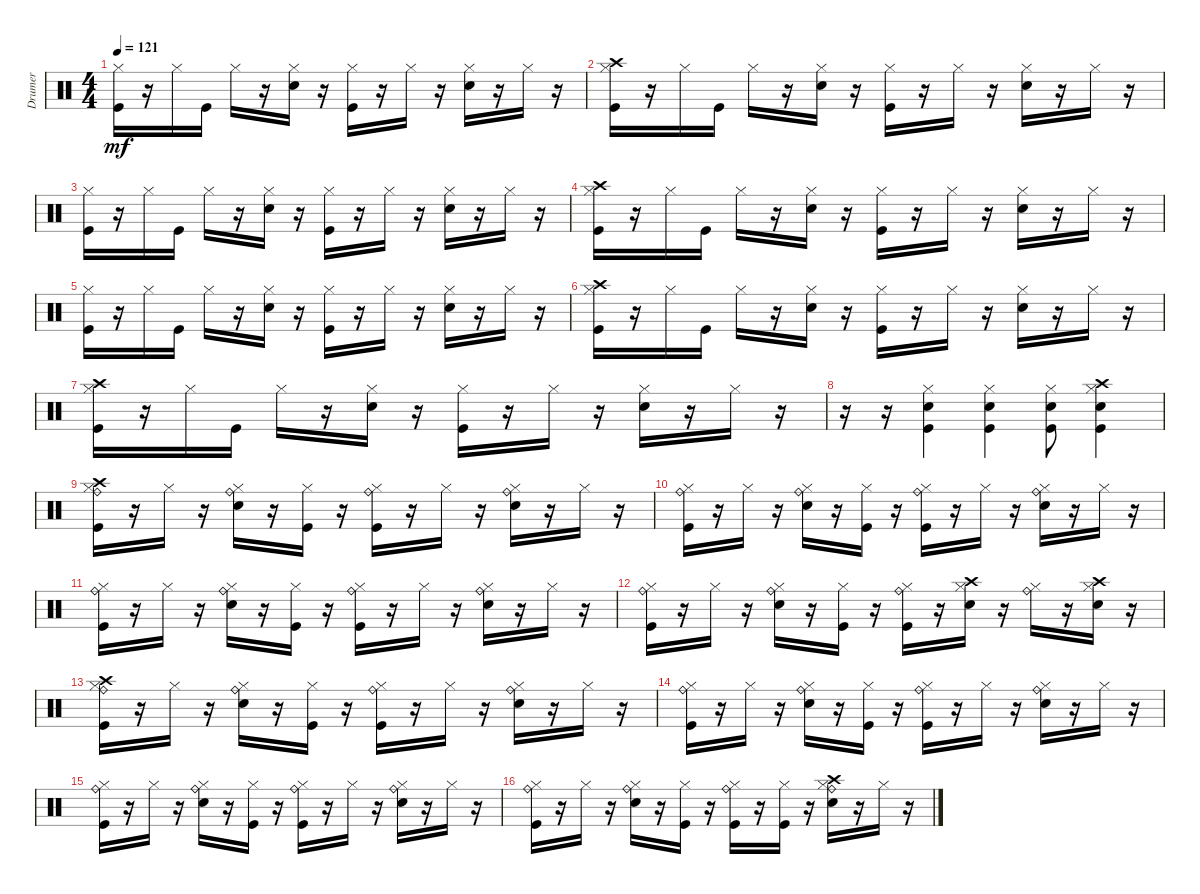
\track ("Drumer" "Drumer") {instrument percussion}
\staff {score}
\articulation defaults
\ts (4 4)
\tempo 121
\clef neutral
\ks c
("Hi-Hat (closed)" "Kick (hit)").16{dy mf} r.16 "Hi-Hat (closed)".16 "Kick (hit)".16 "Hi-Hat (closed)".16 r.16 ("Hi-Hat (closed)" "Snare (hit) 2").16 r.16 ("Hi-Hat (closed)" "Kick (hit)").16 r.16 "Hi-Hat (closed)".16 r.16 ("Hi-Hat (closed)" "Snare (hit) 2").16 r.16 "Hi-Hat (closed)".16 r.16 |
("Hi-Hat (closed)" "Kick (hit)" "Crash high (hit)").16 r.16 "Hi-Hat (closed)".16 "Kick (hit)".16 "Hi-Hat (closed)".16 r.16 ("Hi-Hat (closed)" "Snare (hit) 2").16 r.16 ("Hi-Hat (closed)" "Kick (hit)").16 r.16 "Hi-Hat (closed)".16 r.16 ("Hi-Hat (closed)" "Snare (hit) 2").16 r.16 "Hi-Hat (closed)".16 r.16 |
("Hi-Hat (closed)" "Kick (hit)").16 r.16 "Hi-Hat (closed)".16 "Kick (hit)".16 "Hi-Hat (closed)".16 r.16 ("Hi-Hat (closed)" "Snare (hit) 2").16 r.16 ("Hi-Hat (closed)" "Kick (hit)").16 r.16 "Hi-Hat (closed)".16 r.16 ("Hi-Hat (closed)" "Snare (hit) 2").16 r.16 "Hi-Hat (closed)".16 r.16 |
("Hi-Hat (closed)" "Kick (hit)" "Crash high (hit)").16 r.16 "Hi-Hat (closed)".16 "Kick (hit)".16 "Hi-Hat (closed)".16 r.16 ("Hi-Hat (closed)" "Snare (hit) 2").16 r.16 ("Hi-Hat (closed)" "Kick (hit)").16 r.16 "Hi-Hat (closed)".16 r.16 ("Hi-Hat (closed)" "Snare (hit) 2").16 r.16 "Hi-Hat (closed)".16 r.16 |
("Hi-Hat (closed)" "Kick (hit)").16 r.16 "Hi-Hat (closed)".16 "Kick (hit)".16 "Hi-Hat (closed)".16 r.16 ("Hi-Hat (closed)" "Snare (hit) 2").16 r.16 ("Hi-Hat (closed)" "Kick (hit)").16 r.16 "Hi-Hat (closed)".16 r.16 ("Hi-Hat (closed)" "Snare (hit) 2").16 r.16 "Hi-Hat (closed)".16 r.16 |
("Hi-Hat (closed)" "Kick (hit)" "Crash high (hit)").16 r.16 "Hi-Hat (closed)".16 "Kick (hit)".16 "Hi-Hat (closed)".16 r.16 ("Hi-Hat (closed)" "Snare (hit) 2").16 r.16 ("Hi-Hat (closed)" "Kick (hit)").16 r.16 "Hi-Hat (closed)".16 r.16 ("Hi-Hat (closed)" "Snare (hit) 2").16 r.16 "Hi-Hat (closed)".16 r.16 |
("Hi-Hat (closed)" "Kick (hit)" "Crash high (hit)").16 r.16 "Hi-Hat (closed)".16 "Kick (hit)".16 "Hi-Hat (closed)".16 r.16 ("Hi-Hat (closed)" "Snare (hit) 2").16 r.16 ("Hi-Hat (closed)" "Kick (hit)").16 r.16 "Hi-Hat (closed)".16 r.16 ("Hi-Hat (closed)" "Snare (hit) 2").16 r.16 "Hi-Hat (closed)".16 r.16 |
r.16 r.16 ("Snare (hit) 2" "Kick (hit)" "Hi-Hat (closed)").4 ("Snare (hit) 2" "Kick (hit)" "Hi-Hat (closed)").4 ("Snare (hit) 2" "Kick (hit)" "Hi-Hat (closed)").8 ("Snare (hit) 2" "Kick (hit)" "Crash high (hit)" "Hi-Hat (closed)").4 |
("Hi-Hat (closed)" "Ride (bell)" "Crash high (hit)" "Kick (hit)").16 r.16 "Hi-Hat (closed)".16 r.16 ("Hi-Hat (closed)" "Ride (bell)" "Snare (hit) 2").16 r.16 ("Hi-Hat (closed)" "Kick (hit)").16 r.16 ("Hi-Hat (closed)" "Ride (bell)" "Kick (hit)").16 r.16 "Hi-Hat (closed)".16 r.16 ("Hi-Hat (closed)" "Ride (bell)" "Snare (hit) 2").16 r.16 "Hi-Hat (closed)".16 r.16 |
("Hi-Hat (closed)" "Ride (bell)" "Kick (hit)").16 r.16 "Hi-Hat (closed)".16 r.16 ("Hi-Hat (closed)" "Ride (bell)" "Snare (hit) 2").16 r.16 ("Hi-Hat (closed)" "Kick (hit)").16 r.16 ("Hi-Hat (closed)" "Ride (bell)" "Kick (hit)").16 r.16 "Hi-Hat (closed)".16 r.16 ("Hi-Hat (closed)" "Ride (bell)" "Snare (hit) 2").16 r.16 "Hi-Hat (closed)".16 r.16 |
("Hi-Hat (closed)" "Ride (bell)" "Kick (hit)").16 r.16 "Hi-Hat (closed)".16 r.16 ("Hi-Hat (closed)" "Ride (bell)" "Snare (hit) 2").16 r.16 ("Hi-Hat (closed)" "Kick (hit)").16 r.16 ("Hi-Hat (closed)" "Ride (bell)" "Kick (hit)").16 r.16 "Hi-Hat (closed)".16 r.16 ("Hi-Hat (closed)" "Ride (bell)" "Snare (hit) 2").16 r.16 "Hi-Hat (closed)".16 r.16 |
("Hi-Hat (closed)" "Ride (bell)" "Kick (hit)").16 r.16 "Hi-Hat (closed)".16 r.16 ("Hi-Hat (closed)" "Ride (bell)" "Snare (hit) 2").16 r.16 ("Hi-Hat (closed)" "Kick (hit)").16 r.16 ("Hi-Hat (closed)" "Ride (bell)" "Kick (hit)").16 r.16 ("Hi-Hat (closed)" "Snare (hit) 2" "Crash high (hit)").16 r.16 ("Hi-Hat (closed)" "Ride (bell)").16 r.16 ("Hi-Hat (closed)" "Snare (hit) 2" "Crash high (hit)").16 r.16 |
("Hi-Hat (closed)" "Ride (bell)" "Kick (hit)" "Crash high (hit)").16 r.16 "Hi-Hat (closed)".16 r.16 ("Hi-Hat (closed)" "Ride (bell)" "Snare (hit) 2").16 r.16 ("Hi-Hat (closed)" "Kick (hit)").16 r.16 ("Hi-Hat (closed)" "Ride (bell)" "Kick (hit)").16 r.16 "Hi-Hat (closed)".16 r.16 ("Hi-Hat (closed)" "Ride (bell)" "Snare (hit) 2").16 r.16 "Hi-Hat (closed)".16 r.16 |
("Hi-Hat (closed)" "Ride (bell)" "Kick (hit)").16 r.16 "Hi-Hat (closed)".16 r.16 ("Hi-Hat (closed)" "Ride (bell)" "Snare (hit) 2").16 r.16 ("Hi-Hat (closed)" "Kick (hit)").16 r.16 ("Hi-Hat (closed)" "Ride (bell)" "Kick (hit)").16 r.16 "Hi-Hat (closed)".16 r.16 ("Hi-Hat (closed)" "Ride (bell)" "Snare (hit) 2").16 r.16 "Hi-Hat (closed)".16 r.16 |
("Hi-Hat (closed)" "Ride (bell)" "Kick (hit)").16 r.16 "Hi-Hat (closed)".16 r.16 ("Hi-Hat (closed)" "Ride (bell)" "Snare (hit) 2").16 r.16 ("Hi-Hat (closed)" "Kick (hit)").16 r.16 ("Hi-Hat (closed)" "Ride (bell)" "Kick (hit)").16 r.16 "Hi-Hat (closed)".16 r.16 ("Hi-Hat (closed)" "Ride (bell)" "Snare (hit) 2").16 r.16 "Hi-Hat (closed)".16 r.16 |
("Hi-Hat (closed)" "Ride (bell)" "Kick (hit)").16 r.16 "Hi-Hat (closed)".16 r.16 ("Hi-Hat (closed)" "Ride (bell)" "Snare (hit) 2").16 r.16 ("Hi-Hat (closed)" "Kick (hit)").16 r.16 ("Hi-Hat (closed)" "Ride (bell)" "Kick (hit)").16 r.16 ("Hi-Hat (closed)" "Kick (hit)").16 r.16 ("Hi-Hat (closed)" "Ride (bell)" "Snare (hit) 2" "Crash high (hit)").16 r.16 "Hi-Hat (closed)".16 r.16
